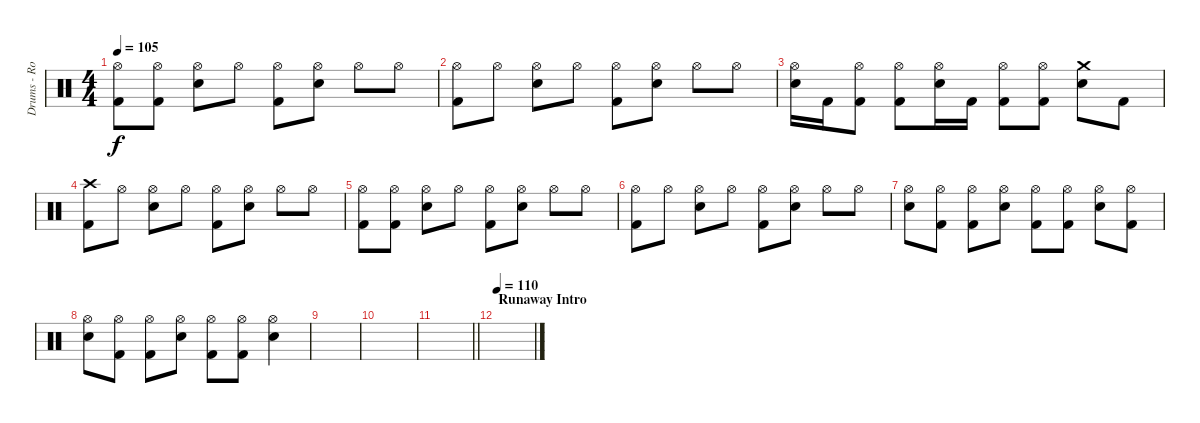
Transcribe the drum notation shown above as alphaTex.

\track ("Drums - Rob Bourdon" "Drums - Ro") {instrument percussion}
\staff {score}
\articulation defaults
\ts (4 4)
\tempo 105
\clef neutral
\ks c
("Hi-Hat (open)" "Kick (hit) 2").8{dy f} ("Hi-Hat (open)" "Kick (hit) 2").8 ("Hi-Hat (open)" "Snare (hit) 2").8 "Hi-Hat (open)".8 ("Hi-Hat (open)" "Kick (hit) 2").8 ("Hi-Hat (open)" "Snare (hit) 2").8 "Hi-Hat (open)".8 "Hi-Hat (open)".8 |
("Hi-Hat (open)" "Kick (hit) 2").8 "Hi-Hat (open)".8 ("Hi-Hat (open)" "Snare (hit) 2").8 "Hi-Hat (open)".8 ("Hi-Hat (open)" "Kick (hit) 2").8 ("Hi-Hat (open)" "Snare (hit) 2").8 "Hi-Hat (open)".8 "Hi-Hat (open)".8 |
("Hi-Hat (open)" "Snare (hit) 2").16 "Kick (hit) 2".16 ("Hi-Hat (open)" "Kick (hit) 2").8 ("Hi-Hat (open)" "Kick (hit) 2").8 ("Hi-Hat (open)" "Snare (hit) 2").16 "Kick (hit) 2".16 ("Hi-Hat (open)" "Kick (hit) 2").8 ("Hi-Hat (open)" "Kick (hit) 2").8 ("Crash medium (hit)" "Snare (hit) 2").8 "Kick (hit) 2".8 |
("Crash high (hit)" "Kick (hit) 2").8 "Hi-Hat (open)".8 ("Hi-Hat (open)" "Snare (hit) 2").8 "Hi-Hat (open)".8 ("Hi-Hat (open)" "Kick (hit) 2").8 ("Hi-Hat (open)" "Snare (hit) 2").8 "Hi-Hat (open)".8 "Hi-Hat (open)".8 |
("Hi-Hat (open)" "Kick (hit) 2").8 ("Hi-Hat (open)" "Kick (hit) 2").8 ("Hi-Hat (open)" "Snare (hit) 2").8 "Hi-Hat (open)".8 ("Hi-Hat (open)" "Kick (hit) 2").8 ("Hi-Hat (open)" "Snare (hit) 2").8 "Hi-Hat (open)".8 "Hi-Hat (open)".8 |
("Hi-Hat (open)" "Kick (hit) 2").8 "Hi-Hat (open)".8 ("Hi-Hat (open)" "Snare (hit) 2").8 "Hi-Hat (open)".8 ("Hi-Hat (open)" "Kick (hit) 2").8 ("Hi-Hat (open)" "Snare (hit) 2").8 "Hi-Hat (open)".8 "Hi-Hat (open)".8 |
("Hi-Hat (open)" "Snare (hit) 2").8 ("Hi-Hat (open)" "Kick (hit) 2").8 ("Hi-Hat (open)" "Kick (hit) 2").8 ("Hi-Hat (open)" "Snare (hit) 2").8 ("Hi-Hat (open)" "Kick (hit) 2").8 ("Hi-Hat (open)" "Kick (hit) 2").8 ("Hi-Hat (open)" "Snare (hit) 2").8 ("Hi-Hat (open)" "Kick (hit) 2").8 |
("Hi-Hat (open)" "Snare (hit) 2").8 ("Hi-Hat (open)" "Kick (hit) 2").8 ("Hi-Hat (open)" "Kick (hit) 2").8 ("Hi-Hat (open)" "Snare (hit) 2").8 ("Hi-Hat (open)" "Kick (hit) 2").8 ("Hi-Hat (open)" "Kick (hit) 2").8 ("Hi-Hat (open)" "Snare (hit) 2").4 |
|
|
\barLineRight lightlight
|
\section ("" "Runaway Intro")
\tempo 110
